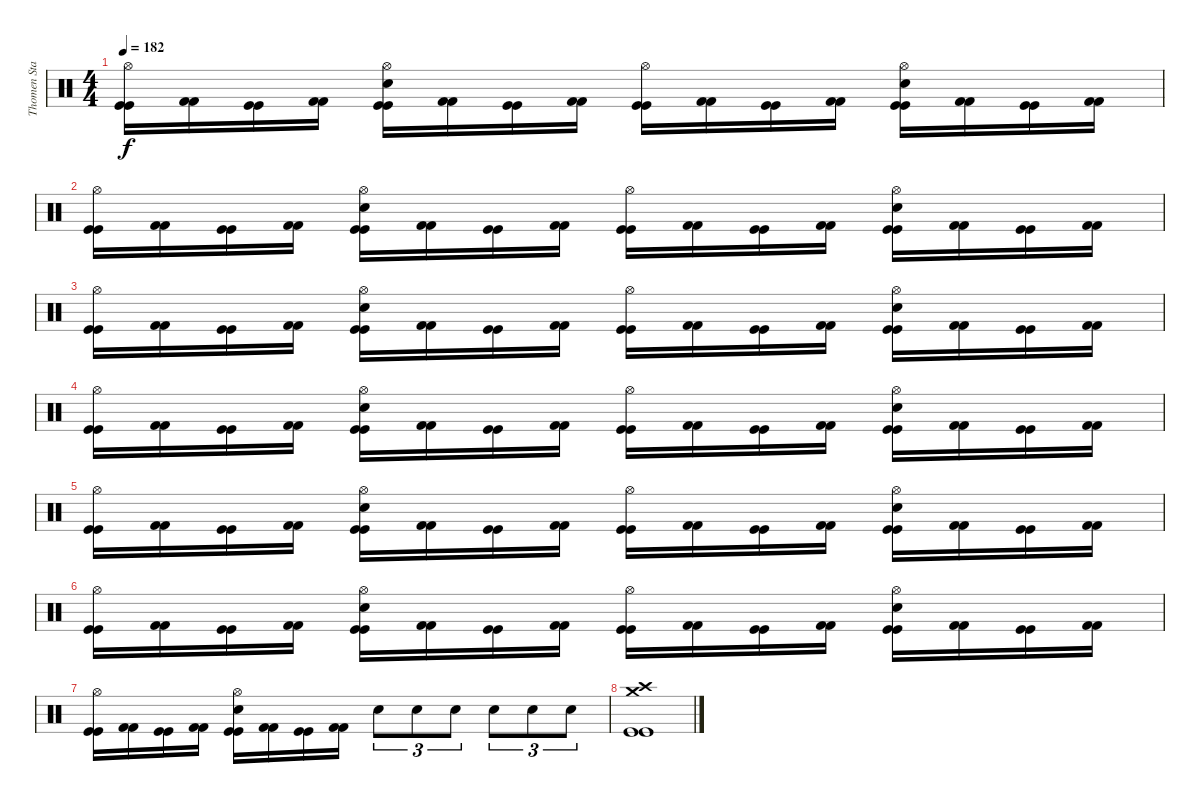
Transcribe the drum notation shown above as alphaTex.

\track ("Thomen Stauch" "Thomen Sta") {instrument percussion}
\staff {score}
\articulation defaults
\ts (4 4)
\tempo 182
\clef neutral
\ks c
("Hi-Hat (open)" "Kick (hit)" "Kick (hit)").16{dy f} ("Kick (hit) 2" "Kick (hit) 2").16 ("Kick (hit)" "Kick (hit)").16 ("Kick (hit) 2" "Kick (hit) 2").16 ("Hi-Hat (open)" "Snare (hit) 2" "Kick (hit)" "Kick (hit)").16 ("Kick (hit) 2" "Kick (hit) 2").16 ("Kick (hit)" "Kick (hit)").16 ("Kick (hit) 2" "Kick (hit) 2").16 ("Hi-Hat (open)" "Kick (hit)" "Kick (hit)").16 ("Kick (hit) 2" "Kick (hit) 2").16 ("Kick (hit)" "Kick (hit)").16 ("Kick (hit) 2" "Kick (hit) 2").16 ("Hi-Hat (open)" "Snare (hit) 2" "Kick (hit)" "Kick (hit)").16 ("Kick (hit) 2" "Kick (hit) 2").16 ("Kick (hit)" "Kick (hit)").16 ("Kick (hit) 2" "Kick (hit) 2").16 |
("Hi-Hat (open)" "Kick (hit)" "Kick (hit)").16 ("Kick (hit) 2" "Kick (hit) 2").16 ("Kick (hit)" "Kick (hit)").16 ("Kick (hit) 2" "Kick (hit) 2").16 ("Hi-Hat (open)" "Snare (hit) 2" "Kick (hit)" "Kick (hit)").16 ("Kick (hit) 2" "Kick (hit) 2").16 ("Kick (hit)" "Kick (hit)").16 ("Kick (hit) 2" "Kick (hit) 2").16 ("Hi-Hat (open)" "Kick (hit)" "Kick (hit)").16 ("Kick (hit) 2" "Kick (hit) 2").16 ("Kick (hit)" "Kick (hit)").16 ("Kick (hit) 2" "Kick (hit) 2").16 ("Hi-Hat (open)" "Snare (hit) 2" "Kick (hit)" "Kick (hit)").16 ("Kick (hit) 2" "Kick (hit) 2").16 ("Kick (hit)" "Kick (hit)").16 ("Kick (hit) 2" "Kick (hit) 2").16 |
("Hi-Hat (open)" "Kick (hit)" "Kick (hit)").16 ("Kick (hit) 2" "Kick (hit) 2").16 ("Kick (hit)" "Kick (hit)").16 ("Kick (hit) 2" "Kick (hit) 2").16 ("Hi-Hat (open)" "Snare (hit) 2" "Kick (hit)" "Kick (hit)").16 ("Kick (hit) 2" "Kick (hit) 2").16 ("Kick (hit)" "Kick (hit)").16 ("Kick (hit) 2" "Kick (hit) 2").16 ("Hi-Hat (open)" "Kick (hit)" "Kick (hit)").16 ("Kick (hit) 2" "Kick (hit) 2").16 ("Kick (hit)" "Kick (hit)").16 ("Kick (hit) 2" "Kick (hit) 2").16 ("Hi-Hat (open)" "Snare (hit) 2" "Kick (hit)" "Kick (hit)").16 ("Kick (hit) 2" "Kick (hit) 2").16 ("Kick (hit)" "Kick (hit)").16 ("Kick (hit) 2" "Kick (hit) 2").16 |
("Hi-Hat (open)" "Kick (hit)" "Kick (hit)").16 ("Kick (hit) 2" "Kick (hit) 2").16 ("Kick (hit)" "Kick (hit)").16 ("Kick (hit) 2" "Kick (hit) 2").16 ("Hi-Hat (open)" "Snare (hit) 2" "Kick (hit)" "Kick (hit)").16 ("Kick (hit) 2" "Kick (hit) 2").16 ("Kick (hit)" "Kick (hit)").16 ("Kick (hit) 2" "Kick (hit) 2").16 ("Hi-Hat (open)" "Kick (hit)" "Kick (hit)").16 ("Kick (hit) 2" "Kick (hit) 2").16 ("Kick (hit)" "Kick (hit)").16 ("Kick (hit) 2" "Kick (hit) 2").16 ("Hi-Hat (open)" "Snare (hit) 2" "Kick (hit)" "Kick (hit)").16 ("Kick (hit) 2" "Kick (hit) 2").16 ("Kick (hit)" "Kick (hit)").16 ("Kick (hit) 2" "Kick (hit) 2").16 |
("Hi-Hat (open)" "Kick (hit)" "Kick (hit)").16 ("Kick (hit) 2" "Kick (hit) 2").16 ("Kick (hit)" "Kick (hit)").16 ("Kick (hit) 2" "Kick (hit) 2").16 ("Hi-Hat (open)" "Snare (hit) 2" "Kick (hit)" "Kick (hit)").16 ("Kick (hit) 2" "Kick (hit) 2").16 ("Kick (hit)" "Kick (hit)").16 ("Kick (hit) 2" "Kick (hit) 2").16 ("Hi-Hat (open)" "Kick (hit)" "Kick (hit)").16 ("Kick (hit) 2" "Kick (hit) 2").16 ("Kick (hit)" "Kick (hit)").16 ("Kick (hit) 2" "Kick (hit) 2").16 ("Hi-Hat (open)" "Snare (hit) 2" "Kick (hit)" "Kick (hit)").16 ("Kick (hit) 2" "Kick (hit) 2").16 ("Kick (hit)" "Kick (hit)").16 ("Kick (hit) 2" "Kick (hit) 2").16 |
("Hi-Hat (open)" "Kick (hit)" "Kick (hit)").16 ("Kick (hit) 2" "Kick (hit) 2").16 ("Kick (hit)" "Kick (hit)").16 ("Kick (hit) 2" "Kick (hit) 2").16 ("Hi-Hat (open)" "Snare (hit) 2" "Kick (hit)" "Kick (hit)").16 ("Kick (hit) 2" "Kick (hit) 2").16 ("Kick (hit)" "Kick (hit)").16 ("Kick (hit) 2" "Kick (hit) 2").16 ("Hi-Hat (open)" "Kick (hit)" "Kick (hit)").16 ("Kick (hit) 2" "Kick (hit) 2").16 ("Kick (hit)" "Kick (hit)").16 ("Kick (hit) 2" "Kick (hit) 2").16 ("Hi-Hat (open)" "Snare (hit) 2" "Kick (hit)" "Kick (hit)").16 ("Kick (hit) 2" "Kick (hit) 2").16 ("Kick (hit)" "Kick (hit)").16 ("Kick (hit) 2" "Kick (hit) 2").16 |
("Hi-Hat (open)" "Kick (hit)" "Kick (hit)").16 ("Kick (hit) 2" "Kick (hit) 2").16 ("Kick (hit)" "Kick (hit)").16 ("Kick (hit) 2" "Kick (hit) 2").16 ("Hi-Hat (open)" "Snare (hit) 2" "Kick (hit)" "Kick (hit)").16 ("Kick (hit) 2" "Kick (hit) 2").16 ("Kick (hit)" "Kick (hit)").16 ("Kick (hit) 2" "Kick (hit) 2").16 "Snare (hit) 2".8{tu (3 2)} "Snare (hit) 2".8{tu (3 2)} "Snare (hit) 2".8{tu (3 2)} "Snare (hit) 2".8{tu (3 2)} "Snare (hit) 2".8{tu (3 2)} "Snare (hit) 2".8{tu (3 2)} |
("Crash medium (hit)" "Crash high (hit)" "Kick (hit)" "Kick (hit)").1
